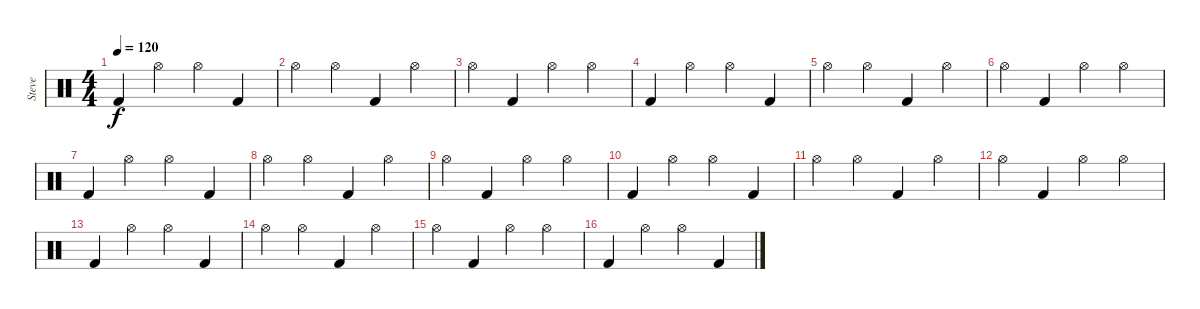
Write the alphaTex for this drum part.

\track ("Steve" "Steve") {instrument percussion}
\staff {score}
\articulation defaults
\ts (4 4)
\tempo 120
\clef neutral
\ks c "Kick (hit) 2".4{dy f} "Hi-Hat (open)".4 "Hi-Hat (open)".4 "Kick (hit) 2".4
|
"Hi-Hat (open)".4 "Hi-Hat (open)".4 "Kick (hit) 2".4 "Hi-Hat (open)".4 |
"Hi-Hat (open)".4 "Kick (hit) 2".4 "Hi-Hat (open)".4 "Hi-Hat (open)".4 |
"Kick (hit) 2".4 "Hi-Hat (open)".4 "Hi-Hat (open)".4 "Kick (hit) 2".4 |
"Hi-Hat (open)".4 "Hi-Hat (open)".4 "Kick (hit) 2".4 "Hi-Hat (open)".4 |
"Hi-Hat (open)".4 "Kick (hit) 2".4 "Hi-Hat (open)".4 "Hi-Hat (open)".4 |
"Kick (hit) 2".4 "Hi-Hat (open)".4 "Hi-Hat (open)".4 "Kick (hit) 2".4 |
"Hi-Hat (open)".4 "Hi-Hat (open)".4 "Kick (hit) 2".4 "Hi-Hat (open)".4 |
"Hi-Hat (open)".4 "Kick (hit) 2".4 "Hi-Hat (open)".4 "Hi-Hat (open)".4 |
"Kick (hit) 2".4 "Hi-Hat (open)".4 "Hi-Hat (open)".4 "Kick (hit) 2".4 |
"Hi-Hat (open)".4 "Hi-Hat (open)".4 "Kick (hit) 2".4 "Hi-Hat (open)".4 |
"Hi-Hat (open)".4 "Kick (hit) 2".4 "Hi-Hat (open)".4 "Hi-Hat (open)".4 |
"Kick (hit) 2".4 "Hi-Hat (open)".4 "Hi-Hat (open)".4 "Kick (hit) 2".4 |
"Hi-Hat (open)".4 "Hi-Hat (open)".4 "Kick (hit) 2".4 "Hi-Hat (open)".4 |
"Hi-Hat (open)".4 "Kick (hit) 2".4 "Hi-Hat (open)".4 "Hi-Hat (open)".4 |
"Kick (hit) 2".4 "Hi-Hat (open)".4 "Hi-Hat (open)".4 "Kick (hit) 2".4
